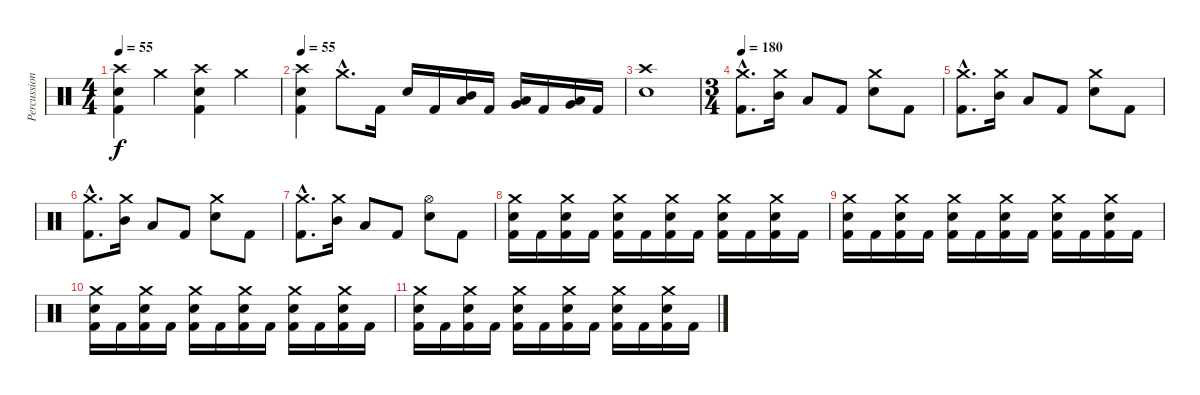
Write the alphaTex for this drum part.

\track ("Percussion" "Percussion") {instrument percussion}
\staff {score}
\articulation defaults
\ts (4 4)
\tempo 55
\clef neutral
\ks c
("Electric Snare (hit)" "Kick (hit) 2" "Crash high (hit)").4{dy f} "Crash medium (hit)".4 ("Electric Snare (hit)" "Kick (hit) 2" "Crash high (hit)").4 "Crash medium (hit)".4 |
\tempo 55
("Electric Snare (hit)" "Kick (hit) 2" "Crash high (hit)").4 "Crash medium (hit)"{hac}.8{d} "Kick (hit) 2".16 "Electric Snare (hit)".16 "Kick (hit) 2".16 ("Low Tom (hit)" "Mid Tom (hit)").16 "Kick (hit) 2".16 ("Low Tom (hit)" "Very Low Tom (hit)").16 "Kick (hit) 2".16 ("Low Tom (hit)" "Very Low Tom (hit)").16 "Kick (hit) 2".16 |
("Crash high (hit)" "Electric Snare (hit)").1 |
\ts (3 4)
\tempo 180
("Kick (hit) 2"{hac} "Crash medium (hit)"{hac}).8{d} ("Mid Tom (hit)" "Crash medium (hit)").16 "Low Tom (hit)".8 "Kick (hit) 2".8 ("Electric Snare (hit)" "Crash medium (hit)").8 "Kick (hit) 2".8 |
("Kick (hit) 2"{hac} "Crash medium (hit)"{hac}).8{d} ("Mid Tom (hit)" "Crash medium (hit)").16 "Low Tom (hit)".8 "Kick (hit) 2".8 ("Electric Snare (hit)" "Crash medium (hit)").8 "Kick (hit) 2".8 |
("Kick (hit) 2"{hac} "Crash medium (hit)"{hac}).8{d} ("Mid Tom (hit)" "Crash medium (hit)").16 "Low Tom (hit)".8 "Kick (hit) 2".8 ("Electric Snare (hit)" "Crash medium (hit)").8 "Kick (hit) 2".8 |
("Kick (hit) 2"{hac} "Crash medium (hit)"{hac}).8{d} ("Mid Tom (hit)" "Crash medium (hit)").16 "Low Tom (hit)".8 "Kick (hit) 2".8 ("Electric Snare (hit)" "Hi-Hat (open)").8 "Kick (hit) 2".8 |
("Kick (hit) 2" "Electric Snare (hit)" "Crash medium (hit)").16 "Kick (hit) 2".16 ("Kick (hit) 2" "Electric Snare (hit)" "Crash medium (hit)").16 "Kick (hit) 2".16 ("Kick (hit) 2" "Electric Snare (hit)" "Crash medium (hit)").16 "Kick (hit) 2".16 ("Kick (hit) 2" "Electric Snare (hit)" "Crash medium (hit)").16 "Kick (hit) 2".16 ("Kick (hit) 2" "Electric Snare (hit)" "Crash medium (hit)").16 "Kick (hit) 2".16 ("Kick (hit) 2" "Electric Snare (hit)" "Crash medium (hit)").16 "Kick (hit) 2".16 |
("Kick (hit) 2" "Electric Snare (hit)" "Crash medium (hit)").16 "Kick (hit) 2".16 ("Kick (hit) 2" "Electric Snare (hit)" "Crash medium (hit)").16 "Kick (hit) 2".16 ("Kick (hit) 2" "Electric Snare (hit)" "Crash medium (hit)").16 "Kick (hit) 2".16 ("Kick (hit) 2" "Electric Snare (hit)" "Crash medium (hit)").16 "Kick (hit) 2".16 ("Kick (hit) 2" "Electric Snare (hit)" "Crash medium (hit)").16 "Kick (hit) 2".16 ("Kick (hit) 2" "Electric Snare (hit)" "Crash medium (hit)").16 "Kick (hit) 2".16 |
("Kick (hit) 2" "Electric Snare (hit)" "Crash medium (hit)").16 "Kick (hit) 2".16 ("Kick (hit) 2" "Electric Snare (hit)" "Crash medium (hit)").16 "Kick (hit) 2".16 ("Kick (hit) 2" "Electric Snare (hit)" "Crash medium (hit)").16 "Kick (hit) 2".16 ("Kick (hit) 2" "Electric Snare (hit)" "Crash medium (hit)").16 "Kick (hit) 2".16 ("Kick (hit) 2" "Electric Snare (hit)" "Crash medium (hit)").16 "Kick (hit) 2".16 ("Kick (hit) 2" "Electric Snare (hit)" "Crash medium (hit)").16 "Kick (hit) 2".16 |
("Kick (hit) 2" "Electric Snare (hit)" "Crash medium (hit)").16 "Kick (hit) 2".16 ("Kick (hit) 2" "Electric Snare (hit)" "Crash medium (hit)").16 "Kick (hit) 2".16 ("Kick (hit) 2" "Electric Snare (hit)" "Crash medium (hit)").16 "Kick (hit) 2".16 ("Kick (hit) 2" "Electric Snare (hit)" "Crash medium (hit)").16 "Kick (hit) 2".16 ("Kick (hit) 2" "Electric Snare (hit)" "Crash medium (hit)").16 "Kick (hit) 2".16 ("Kick (hit) 2" "Electric Snare (hit)" "Crash medium (hit)").16 "Kick (hit) 2".16
